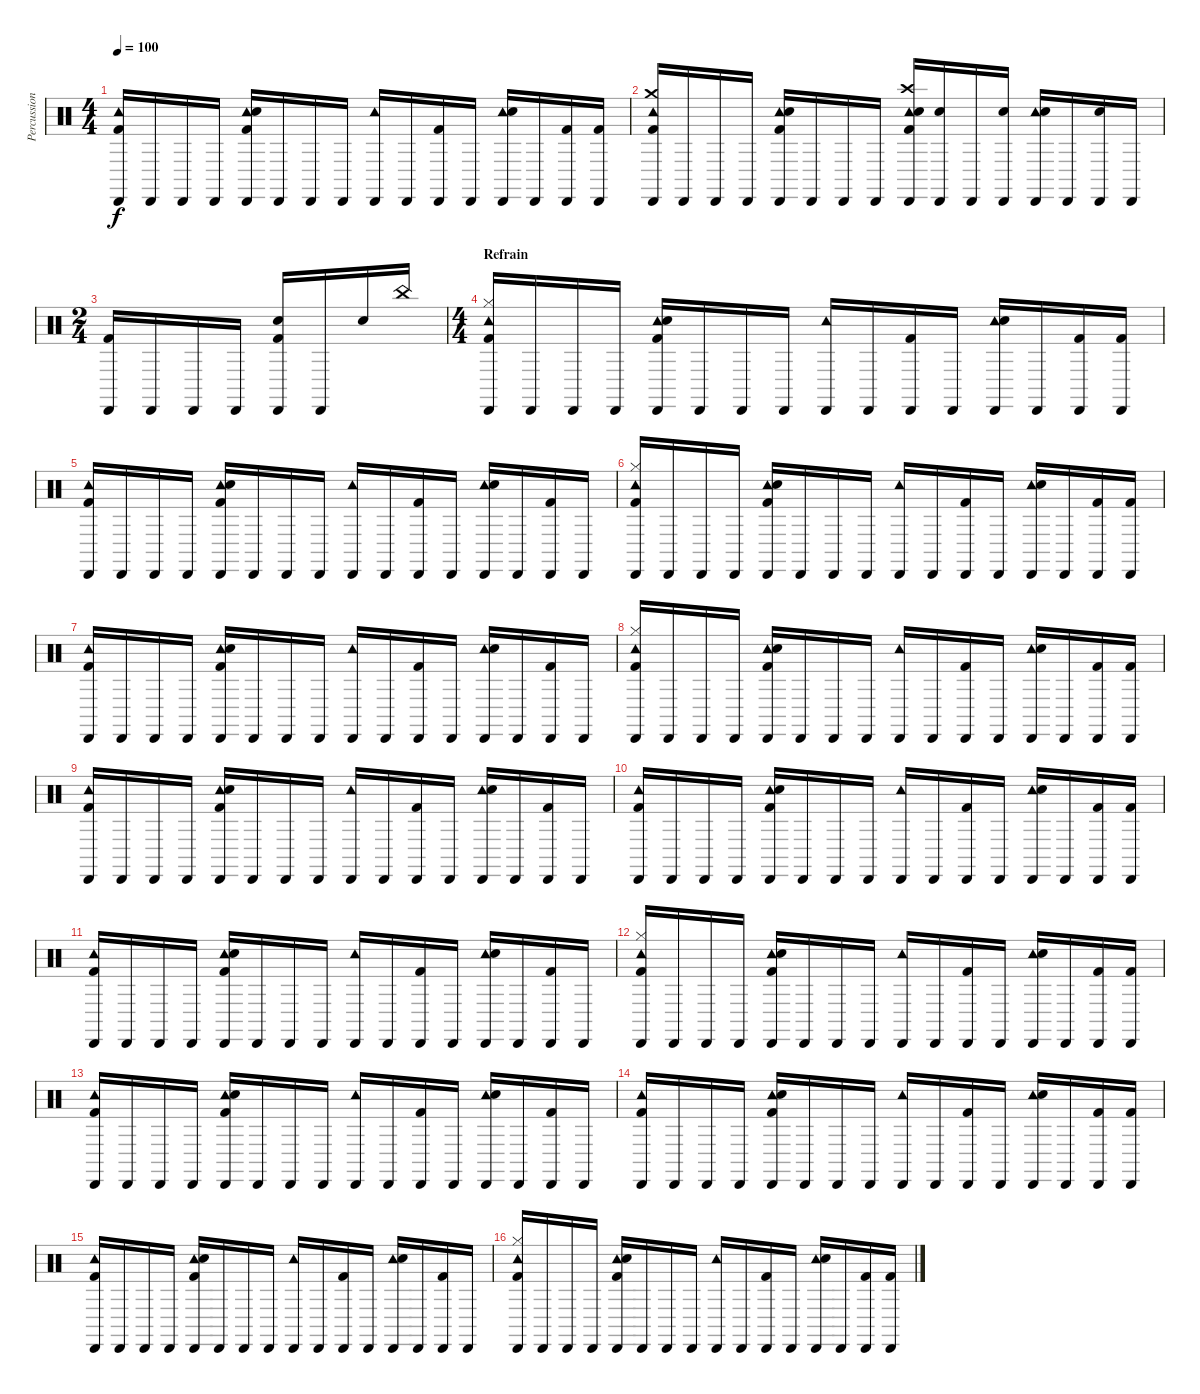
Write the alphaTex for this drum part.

\track ("Percussions" "Percussion") {instrument percussion}
\staff {score}
\articulation defaults
\ts (4 4)
\tempo 100
\clef neutral
\ks c
("Cabasa (hit)" "Tambourine (hit)" "Kick (hit) 2").16{dy f} "Cabasa (hit)".16 "Cabasa (hit)".16 "Cabasa (hit)".16 ("Cabasa (hit)" "Tambourine (hit)" "Hand Clap (hit)" "Kick (hit) 2").16 "Cabasa (hit)".16 "Cabasa (hit)".16 "Cabasa (hit)".16 ("Cabasa (hit)" "Tambourine (hit)").16 "Cabasa (hit)".16 ("Cabasa (hit)" "Kick (hit) 2").16 "Cabasa (hit)".16 ("Cabasa (hit)" "Tambourine (hit)" "Hand Clap (hit)").16 "Cabasa (hit)".16 ("Cabasa (hit)" "Kick (hit) 2").16 ("Cabasa (hit)" "Kick (hit) 2").16 |
("Cabasa (hit)" "Tambourine (hit)" "Crash medium (hit)" "Kick (hit) 2").16 "Cabasa (hit)".16 "Cabasa (hit)".16 "Cabasa (hit)".16 ("Cabasa (hit)" "Tambourine (hit)" "Hand Clap (hit)" "Kick (hit) 2").16 "Cabasa (hit)".16 "Cabasa (hit)".16 "Cabasa (hit)".16 ("Cabasa (hit)" "Tambourine (hit)" "Snare (hit) 2" "Crash high (hit)" "Kick (hit) 2").16 ("Cabasa (hit)" "Snare (hit) 2").16 "Cabasa (hit)".16 ("Cabasa (hit)" "Snare (hit) 2").16 ("Cabasa (hit)" "Tambourine (hit)" "Snare (hit) 2").16 "Cabasa (hit)".16 ("Cabasa (hit)" "Snare (hit) 2").16 "Cabasa (hit)".16 |
\ts (2 4)
("Cabasa (hit)" "Kick (hit) 2").16 "Cabasa (hit)".16 "Cabasa (hit)".16 "Cabasa (hit)".16 ("Cabasa (hit)" "Hand Clap (hit)" "Kick (hit) 2").16 "Cabasa (hit)".16 "Snare (hit)".16 "China (choke)".16 |
\ts (4 4)
\section ("" "Refrain")
("Cabasa (hit)" "Tambourine (hit)" "Hi-Hat (closed)" "Kick (hit) 2").16 "Cabasa (hit)".16 "Cabasa (hit)".16 "Cabasa (hit)".16 ("Cabasa (hit)" "Tambourine (hit)" "Hand Clap (hit)" "Kick (hit) 2").16 "Cabasa (hit)".16 "Cabasa (hit)".16 "Cabasa (hit)".16 ("Cabasa (hit)" "Tambourine (hit)").16 "Cabasa (hit)".16 ("Cabasa (hit)" "Kick (hit) 2").16 "Cabasa (hit)".16 ("Cabasa (hit)" "Tambourine (hit)" "Hand Clap (hit)").16 "Cabasa (hit)".16 ("Cabasa (hit)" "Kick (hit) 2").16 ("Cabasa (hit)" "Kick (hit) 2").16 |
("Cabasa (hit)" "Tambourine (hit)" "Kick (hit) 2").16 "Cabasa (hit)".16 "Cabasa (hit)".16 "Cabasa (hit)".16 ("Cabasa (hit)" "Tambourine (hit)" "Hand Clap (hit)" "Kick (hit) 2").16 "Cabasa (hit)".16 "Cabasa (hit)".16 "Cabasa (hit)".16 ("Cabasa (hit)" "Tambourine (hit)").16 "Cabasa (hit)".16 ("Cabasa (hit)" "Kick (hit) 2").16 "Cabasa (hit)".16 ("Cabasa (hit)" "Tambourine (hit)" "Hand Clap (hit)").16 "Cabasa (hit)".16 ("Cabasa (hit)" "Kick (hit) 2").16 "Cabasa (hit)".16 |
("Cabasa (hit)" "Tambourine (hit)" "Hi-Hat (closed)" "Kick (hit) 2").16 "Cabasa (hit)".16 "Cabasa (hit)".16 "Cabasa (hit)".16 ("Cabasa (hit)" "Tambourine (hit)" "Hand Clap (hit)" "Kick (hit) 2").16 "Cabasa (hit)".16 "Cabasa (hit)".16 "Cabasa (hit)".16 ("Cabasa (hit)" "Tambourine (hit)").16 "Cabasa (hit)".16 ("Cabasa (hit)" "Kick (hit) 2").16 "Cabasa (hit)".16 ("Cabasa (hit)" "Tambourine (hit)" "Hand Clap (hit)").16 "Cabasa (hit)".16 ("Cabasa (hit)" "Kick (hit) 2").16 ("Cabasa (hit)" "Kick (hit) 2").16 |
("Cabasa (hit)" "Tambourine (hit)" "Kick (hit) 2").16 "Cabasa (hit)".16 "Cabasa (hit)".16 "Cabasa (hit)".16 ("Cabasa (hit)" "Tambourine (hit)" "Hand Clap (hit)" "Kick (hit) 2").16 "Cabasa (hit)".16 "Cabasa (hit)".16 "Cabasa (hit)".16 ("Cabasa (hit)" "Tambourine (hit)").16 "Cabasa (hit)".16 ("Cabasa (hit)" "Kick (hit) 2").16 "Cabasa (hit)".16 ("Cabasa (hit)" "Tambourine (hit)" "Hand Clap (hit)").16 "Cabasa (hit)".16 ("Cabasa (hit)" "Kick (hit) 2").16 "Cabasa (hit)".16 |
("Cabasa (hit)" "Tambourine (hit)" "Hi-Hat (closed)" "Kick (hit) 2").16 "Cabasa (hit)".16 "Cabasa (hit)".16 "Cabasa (hit)".16 ("Cabasa (hit)" "Tambourine (hit)" "Hand Clap (hit)" "Kick (hit) 2").16 "Cabasa (hit)".16 "Cabasa (hit)".16 "Cabasa (hit)".16 ("Cabasa (hit)" "Tambourine (hit)").16 "Cabasa (hit)".16 ("Cabasa (hit)" "Kick (hit) 2").16 "Cabasa (hit)".16 ("Cabasa (hit)" "Tambourine (hit)" "Hand Clap (hit)").16 "Cabasa (hit)".16 ("Cabasa (hit)" "Kick (hit) 2").16 ("Cabasa (hit)" "Kick (hit) 2").16 |
("Cabasa (hit)" "Tambourine (hit)" "Kick (hit) 2").16 "Cabasa (hit)".16 "Cabasa (hit)".16 "Cabasa (hit)".16 ("Cabasa (hit)" "Tambourine (hit)" "Hand Clap (hit)" "Kick (hit) 2").16 "Cabasa (hit)".16 "Cabasa (hit)".16 "Cabasa (hit)".16 ("Cabasa (hit)" "Tambourine (hit)").16 "Cabasa (hit)".16 ("Cabasa (hit)" "Kick (hit) 2").16 "Cabasa (hit)".16 ("Cabasa (hit)" "Tambourine (hit)" "Hand Clap (hit)").16 "Cabasa (hit)".16 ("Cabasa (hit)" "Kick (hit) 2").16 "Cabasa (hit)".16 |
("Cabasa (hit)" "Tambourine (hit)" "Kick (hit) 2").16 "Cabasa (hit)".16 "Cabasa (hit)".16 "Cabasa (hit)".16 ("Cabasa (hit)" "Tambourine (hit)" "Hand Clap (hit)" "Kick (hit) 2").16 "Cabasa (hit)".16 "Cabasa (hit)".16 "Cabasa (hit)".16 ("Cabasa (hit)" "Tambourine (hit)").16 "Cabasa (hit)".16 ("Cabasa (hit)" "Kick (hit) 2").16 "Cabasa (hit)".16 ("Cabasa (hit)" "Tambourine (hit)" "Hand Clap (hit)").16 "Cabasa (hit)".16 ("Cabasa (hit)" "Kick (hit) 2").16 ("Cabasa (hit)" "Kick (hit) 2").16 |
("Cabasa (hit)" "Tambourine (hit)" "Kick (hit) 2").16 "Cabasa (hit)".16 "Cabasa (hit)".16 "Cabasa (hit)".16 ("Cabasa (hit)" "Tambourine (hit)" "Hand Clap (hit)" "Kick (hit) 2").16 "Cabasa (hit)".16 "Cabasa (hit)".16 "Cabasa (hit)".16 ("Cabasa (hit)" "Tambourine (hit)").16 "Cabasa (hit)".16 ("Cabasa (hit)" "Kick (hit) 2").16 "Cabasa (hit)".16 ("Cabasa (hit)" "Tambourine (hit)" "Hand Clap (hit)").16 "Cabasa (hit)".16 ("Cabasa (hit)" "Kick (hit) 2").16 "Cabasa (hit)".16 |
("Cabasa (hit)" "Tambourine (hit)" "Hi-Hat (closed)" "Kick (hit) 2").16 "Cabasa (hit)".16 "Cabasa (hit)".16 "Cabasa (hit)".16 ("Cabasa (hit)" "Tambourine (hit)" "Hand Clap (hit)" "Kick (hit) 2").16 "Cabasa (hit)".16 "Cabasa (hit)".16 "Cabasa (hit)".16 ("Cabasa (hit)" "Tambourine (hit)").16 "Cabasa (hit)".16 ("Cabasa (hit)" "Kick (hit) 2").16 "Cabasa (hit)".16 ("Cabasa (hit)" "Tambourine (hit)" "Hand Clap (hit)").16 "Cabasa (hit)".16 ("Cabasa (hit)" "Kick (hit) 2").16 ("Cabasa (hit)" "Kick (hit) 2").16 |
("Cabasa (hit)" "Tambourine (hit)" "Kick (hit) 2").16 "Cabasa (hit)".16 "Cabasa (hit)".16 "Cabasa (hit)".16 ("Cabasa (hit)" "Tambourine (hit)" "Hand Clap (hit)" "Kick (hit) 2").16 "Cabasa (hit)".16 "Cabasa (hit)".16 "Cabasa (hit)".16 ("Cabasa (hit)" "Tambourine (hit)").16 "Cabasa (hit)".16 ("Cabasa (hit)" "Kick (hit) 2").16 "Cabasa (hit)".16 ("Cabasa (hit)" "Tambourine (hit)" "Hand Clap (hit)").16 "Cabasa (hit)".16 ("Cabasa (hit)" "Kick (hit) 2").16 "Cabasa (hit)".16 |
("Cabasa (hit)" "Tambourine (hit)" "Kick (hit) 2").16 "Cabasa (hit)".16 "Cabasa (hit)".16 "Cabasa (hit)".16 ("Cabasa (hit)" "Tambourine (hit)" "Hand Clap (hit)" "Kick (hit) 2").16 "Cabasa (hit)".16 "Cabasa (hit)".16 "Cabasa (hit)".16 ("Cabasa (hit)" "Tambourine (hit)").16 "Cabasa (hit)".16 ("Cabasa (hit)" "Kick (hit) 2").16 "Cabasa (hit)".16 ("Cabasa (hit)" "Tambourine (hit)" "Hand Clap (hit)").16 "Cabasa (hit)".16 ("Cabasa (hit)" "Kick (hit) 2").16 ("Cabasa (hit)" "Kick (hit) 2").16 |
("Cabasa (hit)" "Tambourine (hit)" "Kick (hit) 2").16 "Cabasa (hit)".16 "Cabasa (hit)".16 "Cabasa (hit)".16 ("Cabasa (hit)" "Tambourine (hit)" "Hand Clap (hit)" "Kick (hit) 2").16 "Cabasa (hit)".16 "Cabasa (hit)".16 "Cabasa (hit)".16 ("Cabasa (hit)" "Tambourine (hit)").16 "Cabasa (hit)".16 ("Cabasa (hit)" "Kick (hit) 2").16 "Cabasa (hit)".16 ("Cabasa (hit)" "Tambourine (hit)" "Hand Clap (hit)").16 "Cabasa (hit)".16 ("Cabasa (hit)" "Kick (hit) 2").16 "Cabasa (hit)".16 |
("Cabasa (hit)" "Tambourine (hit)" "Hi-Hat (closed)" "Kick (hit) 2").16 "Cabasa (hit)".16 "Cabasa (hit)".16 "Cabasa (hit)".16 ("Cabasa (hit)" "Tambourine (hit)" "Hand Clap (hit)" "Kick (hit) 2").16 "Cabasa (hit)".16 "Cabasa (hit)".16 "Cabasa (hit)".16 ("Cabasa (hit)" "Tambourine (hit)").16 "Cabasa (hit)".16 ("Cabasa (hit)" "Kick (hit) 2").16 "Cabasa (hit)".16 ("Cabasa (hit)" "Tambourine (hit)" "Hand Clap (hit)").16 "Cabasa (hit)".16 ("Cabasa (hit)" "Kick (hit) 2").16 ("Cabasa (hit)" "Kick (hit) 2").16
